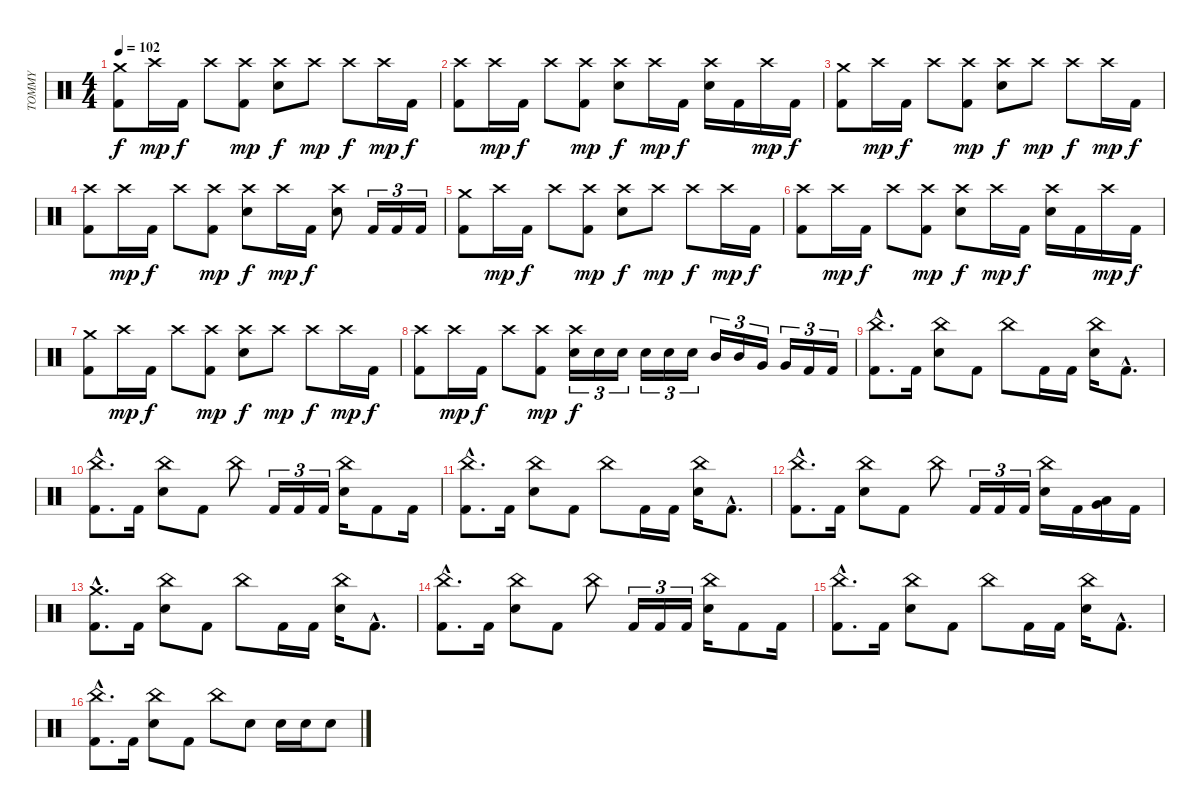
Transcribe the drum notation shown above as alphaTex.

\track ("TOMMY" "TOMMY") {instrument percussion}
\staff {score}
\articulation defaults
\ts (4 4)
\tempo 102
\clef neutral
\ks c
("Kick (hit) 2" "Crash medium (hit)").8{dy f} "Crash high (hit)".16{dy mp} "Kick (hit) 2".16{dy f} "Crash high (hit)".8 ("Kick (hit) 2" "Crash high (hit)").8{dy mp} ("Snare (hit) 2" "Crash high (hit)").8{dy f} "Crash high (hit)".8{dy mp} "Crash high (hit)".8{dy f} "Crash high (hit)".16{dy mp} "Kick (hit) 2".16{dy f} |
("Kick (hit) 2" "Crash high (hit)").8 "Crash high (hit)".16{dy mp} "Kick (hit) 2".16{dy f} "Crash high (hit)".8 ("Kick (hit) 2" "Crash high (hit)").8{dy mp} ("Snare (hit) 2" "Crash high (hit)").8{dy f} "Crash high (hit)".16{dy mp} "Kick (hit) 2".16{dy f} ("Snare (hit) 2" "Crash high (hit)").16 "Kick (hit) 2".16 "Crash high (hit)".16{dy mp} "Kick (hit) 2".16{dy f} |
("Kick (hit) 2" "Crash medium (hit)").8 "Crash high (hit)".16{dy mp} "Kick (hit) 2".16{dy f} "Crash high (hit)".8 ("Kick (hit) 2" "Crash high (hit)").8{dy mp} ("Snare (hit) 2" "Crash high (hit)").8{dy f} "Crash high (hit)".8{dy mp} "Crash high (hit)".8{dy f} "Crash high (hit)".16{dy mp} "Kick (hit) 2".16{dy f} |
("Kick (hit) 2" "Crash high (hit)").8 "Crash high (hit)".16{dy mp} "Kick (hit) 2".16{dy f} "Crash high (hit)".8 ("Kick (hit) 2" "Crash high (hit)").8{dy mp} ("Snare (hit) 2" "Crash high (hit)").8{dy f} "Crash high (hit)".16{dy mp} "Kick (hit) 2".16{dy f} ("Snare (hit) 2" "Crash high (hit)").8 "Kick (hit) 2".16{tu (3 2)} "Kick (hit) 2".16{tu (3 2)} "Kick (hit) 2".16{tu (3 2)} |
("Kick (hit) 2" "Crash medium (hit)").8 "Crash high (hit)".16{dy mp} "Kick (hit) 2".16{dy f} "Crash high (hit)".8 ("Kick (hit) 2" "Crash high (hit)").8{dy mp} ("Snare (hit) 2" "Crash high (hit)").8{dy f} "Crash high (hit)".8{dy mp} "Crash high (hit)".8{dy f} "Crash high (hit)".16{dy mp} "Kick (hit) 2".16{dy f} |
("Kick (hit) 2" "Crash high (hit)").8 "Crash high (hit)".16{dy mp} "Kick (hit) 2".16{dy f} "Crash high (hit)".8 ("Kick (hit) 2" "Crash high (hit)").8{dy mp} ("Snare (hit) 2" "Crash high (hit)").8{dy f} "Crash high (hit)".16{dy mp} "Kick (hit) 2".16{dy f} ("Snare (hit) 2" "Crash high (hit)").16 "Kick (hit) 2".16 "Crash high (hit)".16{dy mp} "Kick (hit) 2".16{dy f} |
("Kick (hit) 2" "Crash medium (hit)").8 "Crash high (hit)".16{dy mp} "Kick (hit) 2".16{dy f} "Crash high (hit)".8 ("Kick (hit) 2" "Crash high (hit)").8{dy mp} ("Snare (hit) 2" "Crash high (hit)").8{dy f} "Crash high (hit)".8{dy mp} "Crash high (hit)".8{dy f} "Crash high (hit)".16{dy mp} "Kick (hit) 2".16{dy f} |
("Kick (hit) 2" "Crash high (hit)").8 "Crash high (hit)".16{dy mp} "Kick (hit) 2".16{dy f} "Crash high (hit)".8 ("Kick (hit) 2" "Crash high (hit)").8{dy mp} ("Snare (hit) 2" "Crash high (hit)").16{tu (3 2) dy f} "Snare (hit) 2".16{tu (3 2)} "Snare (hit) 2".16{tu (3 2)} "Snare (hit) 2".16{tu (3 2)} "Snare (hit) 2".16{tu (3 2)} "Snare (hit) 2".16{tu (3 2)} "Mid Tom (hit)".16{tu (3 2)} "Mid Tom (hit)".16{tu (3 2)} "Very Low Tom (hit)".16{tu (3 2)} "Very Low Tom (hit)".16{tu (3 2)} "Kick (hit) 2".16{tu (3 2)} "Kick (hit) 2".16{tu (3 2)} |
("Kick (hit) 2"{hac} "China (hit)"{hac}).8{d} "Kick (hit) 2".16 ("Snare (hit) 2" "China (hit)").8 "Kick (hit) 2".8 "China (hit)".8 "Kick (hit) 2".16 "Kick (hit) 2".16 ("Snare (hit) 2" "China (hit)").16 "Kick (hit) 2"{hac}.8{d} |
("Kick (hit) 2"{hac} "China (hit)"{hac}).8{d} "Kick (hit) 2".16 ("Snare (hit) 2" "China (hit)").8 "Kick (hit) 2".8 "China (hit)".8 "Kick (hit) 2".16{tu (3 2)} "Kick (hit) 2".16{tu (3 2)} "Kick (hit) 2".16{tu (3 2)} ("Snare (hit) 2" "China (hit)").16 "Kick (hit) 2".8 "Kick (hit) 2".16 |
("Kick (hit) 2"{hac} "China (hit)"{hac}).8{d} "Kick (hit) 2".16 ("Snare (hit) 2" "China (hit)").8 "Kick (hit) 2".8 "China (hit)".8 "Kick (hit) 2".16 "Kick (hit) 2".16 ("Snare (hit) 2" "China (hit)").16 "Kick (hit) 2"{hac}.8{d} |
("Kick (hit) 2"{hac} "China (hit)"{hac}).8{d} "Kick (hit) 2".16 ("Snare (hit) 2" "China (hit)").8 "Kick (hit) 2".8 "China (hit)".8 "Kick (hit) 2".16{tu (3 2)} "Kick (hit) 2".16{tu (3 2)} "Kick (hit) 2".16{tu (3 2)} ("Snare (hit) 2" "China (hit)").16 "Kick (hit) 2".16 ("Very Low Tom (hit)" "Low Floor Tom (hit)").16 "Kick (hit) 2".16 |
("Kick (hit) 2"{hac} "Crash medium (hit)"{hac}).8{d} "Kick (hit) 2".16 ("Snare (hit) 2" "China (hit)").8 "Kick (hit) 2".8 "China (hit)".8 "Kick (hit) 2".16 "Kick (hit) 2".16 ("Snare (hit) 2" "China (hit)").16 "Kick (hit) 2"{hac}.8{d} |
("Kick (hit) 2"{hac} "China (hit)"{hac}).8{d} "Kick (hit) 2".16 ("Snare (hit) 2" "China (hit)").8 "Kick (hit) 2".8 "China (hit)".8 "Kick (hit) 2".16{tu (3 2)} "Kick (hit) 2".16{tu (3 2)} "Kick (hit) 2".16{tu (3 2)} ("Snare (hit) 2" "China (hit)").16 "Kick (hit) 2".8 "Kick (hit) 2".16 |
("Kick (hit) 2"{hac} "China (hit)"{hac}).8{d} "Kick (hit) 2".16 ("Snare (hit) 2" "China (hit)").8 "Kick (hit) 2".8 "China (hit)".8 "Kick (hit) 2".16 "Kick (hit) 2".16 ("Snare (hit) 2" "China (hit)").16 "Kick (hit) 2"{hac}.8{d} |
("Kick (hit) 2"{hac} "China (hit)"{hac}).8{d} "Kick (hit) 2".16 ("Snare (hit) 2" "China (hit)").8 "Kick (hit) 2".8 "China (hit)".8 "Snare (hit) 2".8 "Snare (hit) 2".16 "Snare (hit) 2".16 "Snare (hit) 2".8
